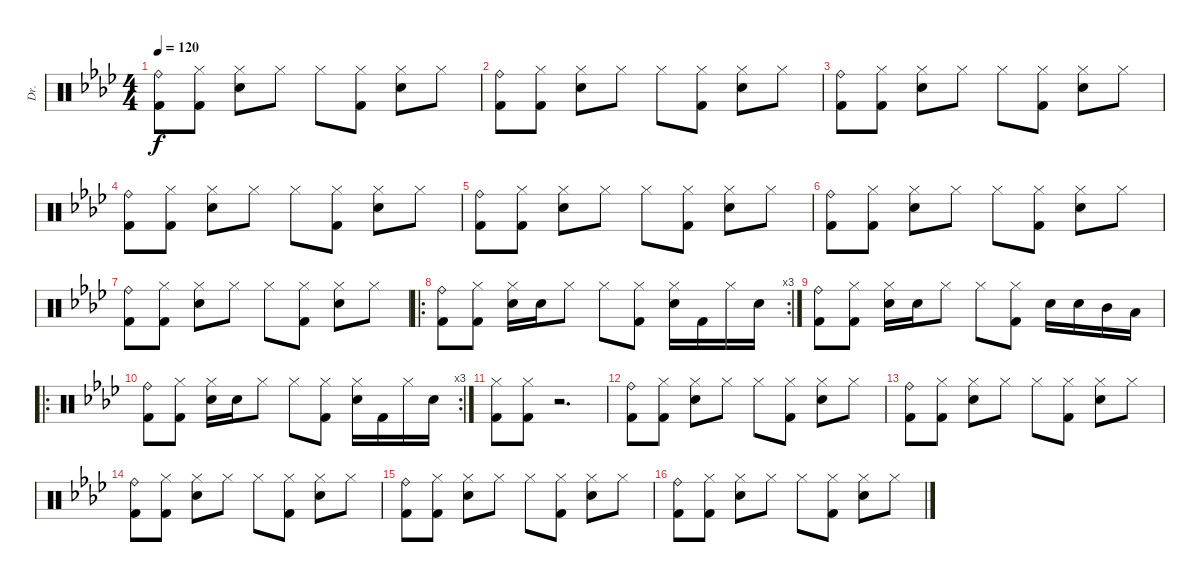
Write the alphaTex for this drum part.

\track ("Dr." "Dr.") {instrument percussion}
\staff {score}
\articulation defaults
\ts (4 4)
\tempo 120
\clef neutral
\ks ab
("Ride (bell)" "Kick (hit) 2").8{dy f} ("Hi-Hat (closed)" "Kick (hit) 2").8 ("Hi-Hat (closed)" "Electric Snare (hit)").8 "Hi-Hat (closed)".8 "Hi-Hat (closed)".8 ("Hi-Hat (closed)" "Kick (hit) 2").8 ("Hi-Hat (closed)" "Electric Snare (hit)").8 "Hi-Hat (closed)".8 |
("Ride (bell)" "Kick (hit) 2").8 ("Hi-Hat (closed)" "Kick (hit) 2").8 ("Hi-Hat (closed)" "Electric Snare (hit)").8 "Hi-Hat (closed)".8 "Hi-Hat (closed)".8 ("Hi-Hat (closed)" "Kick (hit) 2").8 ("Hi-Hat (closed)" "Electric Snare (hit)").8 "Hi-Hat (closed)".8 |
("Ride (bell)" "Kick (hit) 2").8 ("Hi-Hat (closed)" "Kick (hit) 2").8 ("Hi-Hat (closed)" "Electric Snare (hit)").8 "Hi-Hat (closed)".8 "Hi-Hat (closed)".8 ("Hi-Hat (closed)" "Kick (hit) 2").8 ("Hi-Hat (closed)" "Electric Snare (hit)").8 "Hi-Hat (closed)".8 |
("Ride (bell)" "Kick (hit) 2").8 ("Hi-Hat (closed)" "Kick (hit) 2").8 ("Hi-Hat (closed)" "Electric Snare (hit)").8 "Hi-Hat (closed)".8 "Hi-Hat (closed)".8 ("Hi-Hat (closed)" "Kick (hit) 2").8 ("Hi-Hat (closed)" "Electric Snare (hit)").8 "Hi-Hat (closed)".8 |
("Ride (bell)" "Kick (hit) 2").8 ("Hi-Hat (closed)" "Kick (hit) 2").8 ("Hi-Hat (closed)" "Electric Snare (hit)").8 "Hi-Hat (closed)".8 "Hi-Hat (closed)".8 ("Hi-Hat (closed)" "Kick (hit) 2").8 ("Hi-Hat (closed)" "Electric Snare (hit)").8 "Hi-Hat (closed)".8 |
("Ride (bell)" "Kick (hit) 2").8 ("Hi-Hat (closed)" "Kick (hit) 2").8 ("Hi-Hat (closed)" "Electric Snare (hit)").8 "Hi-Hat (closed)".8 "Hi-Hat (closed)".8 ("Hi-Hat (closed)" "Kick (hit) 2").8 ("Hi-Hat (closed)" "Electric Snare (hit)").8 "Hi-Hat (closed)".8 |
("Ride (bell)" "Kick (hit) 2").8 ("Hi-Hat (closed)" "Kick (hit) 2").8 ("Hi-Hat (closed)" "Electric Snare (hit)").8 "Hi-Hat (closed)".8 "Hi-Hat (closed)".8 ("Hi-Hat (closed)" "Kick (hit) 2").8 ("Hi-Hat (closed)" "Electric Snare (hit)").8 "Hi-Hat (closed)".8 |
\ro
\rc 3
("Ride (bell)" "Kick (hit) 2").8 ("Hi-Hat (closed)" "Kick (hit) 2").8 ("Hi-Hat (closed)" "Electric Snare (hit)").16 "Electric Snare (hit)".16 "Hi-Hat (closed)".8 "Hi-Hat (closed)".8 ("Hi-Hat (closed)" "Kick (hit) 2").8 ("Hi-Hat (closed)" "Electric Snare (hit)").16 "Kick (hit) 2".16 "Hi-Hat (closed)".16 "Electric Snare (hit)".16 |
("Ride (bell)" "Kick (hit) 2").8 ("Hi-Hat (closed)" "Kick (hit) 2").8 ("Hi-Hat (closed)" "Electric Snare (hit)").16 "Electric Snare (hit)".16 "Hi-Hat (closed)".8 "Hi-Hat (closed)".8 ("Hi-Hat (closed)" "Kick (hit) 2").8 "Electric Snare (hit)".16 "Electric Snare (hit)".16 "Mid Tom (hit)".16 "Low Tom (hit)".16 |
\ro
\rc 3
("Ride (bell)" "Kick (hit) 2").8 ("Hi-Hat (closed)" "Kick (hit) 2").8 ("Hi-Hat (closed)" "Electric Snare (hit)").16 "Electric Snare (hit)".16 "Hi-Hat (closed)".8 "Hi-Hat (closed)".8 ("Hi-Hat (closed)" "Kick (hit) 2").8 ("Hi-Hat (closed)" "Electric Snare (hit)").16 "Kick (hit) 2".16 "Hi-Hat (closed)".16 "Electric Snare (hit)".16 |
("Hi-Hat (closed)" "Kick (hit) 2").8 ("Hi-Hat (closed)" "Kick (hit) 2").8 r.2{d} |
("Ride (bell)" "Kick (hit) 2").8 ("Hi-Hat (closed)" "Kick (hit) 2").8 ("Hi-Hat (closed)" "Electric Snare (hit)").8 "Hi-Hat (closed)".8 "Hi-Hat (closed)".8 ("Hi-Hat (closed)" "Kick (hit) 2").8 ("Hi-Hat (closed)" "Electric Snare (hit)").8 "Hi-Hat (closed)".8 |
("Ride (bell)" "Kick (hit) 2").8 ("Hi-Hat (closed)" "Kick (hit) 2").8 ("Hi-Hat (closed)" "Electric Snare (hit)").8 "Hi-Hat (closed)".8 "Hi-Hat (closed)".8 ("Hi-Hat (closed)" "Kick (hit) 2").8 ("Hi-Hat (closed)" "Electric Snare (hit)").8 "Hi-Hat (closed)".8 |
("Ride (bell)" "Kick (hit) 2").8 ("Hi-Hat (closed)" "Kick (hit) 2").8 ("Hi-Hat (closed)" "Electric Snare (hit)").8 "Hi-Hat (closed)".8 "Hi-Hat (closed)".8 ("Hi-Hat (closed)" "Kick (hit) 2").8 ("Hi-Hat (closed)" "Electric Snare (hit)").8 "Hi-Hat (closed)".8 |
("Ride (bell)" "Kick (hit) 2").8 ("Hi-Hat (closed)" "Kick (hit) 2").8 ("Hi-Hat (closed)" "Electric Snare (hit)").8 "Hi-Hat (closed)".8 "Hi-Hat (closed)".8 ("Hi-Hat (closed)" "Kick (hit) 2").8 ("Hi-Hat (closed)" "Electric Snare (hit)").8 "Hi-Hat (closed)".8 |
("Ride (bell)" "Kick (hit) 2").8 ("Hi-Hat (closed)" "Kick (hit) 2").8 ("Hi-Hat (closed)" "Electric Snare (hit)").8 "Hi-Hat (closed)".8 "Hi-Hat (closed)".8 ("Hi-Hat (closed)" "Kick (hit) 2").8 ("Hi-Hat (closed)" "Electric Snare (hit)").8 "Hi-Hat (closed)".8
